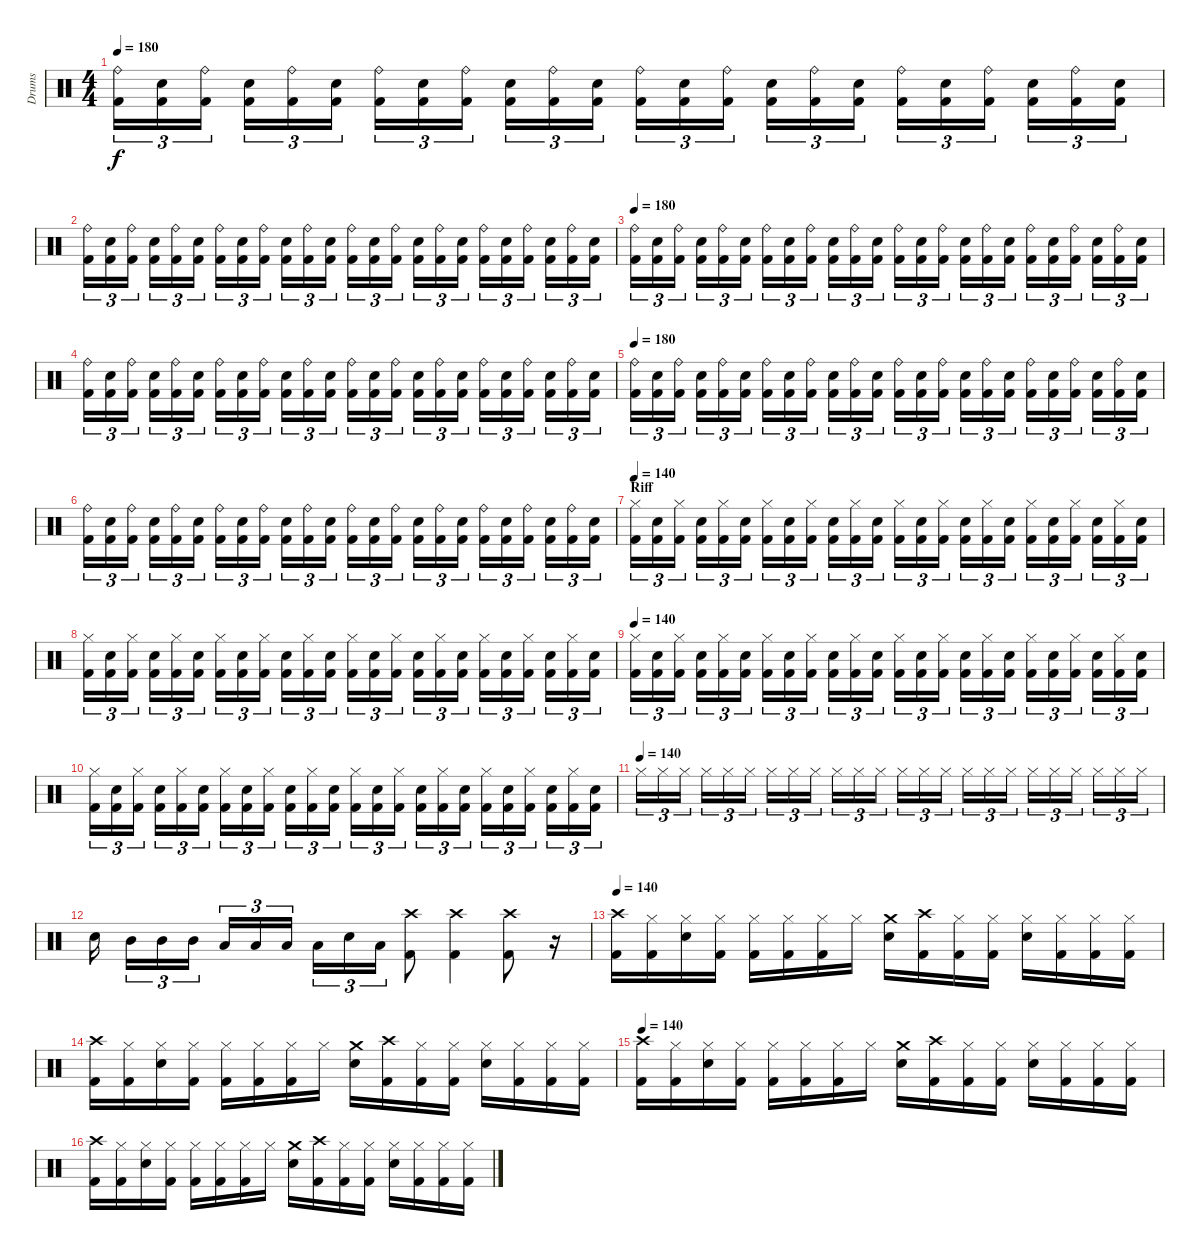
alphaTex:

\track ("Drums" "Drums") {instrument percussion}
\staff {score}
\articulation defaults
\ts (4 4)
\tempo 180
\clef neutral
\ks c
("Ride (bell)" "Kick (hit) 2").16{tu (3 2) dy f} ("Electric Snare (hit)" "Kick (hit) 2").16{tu (3 2)} ("Ride (bell)" "Kick (hit) 2").16{tu (3 2)} ("Electric Snare (hit)" "Kick (hit) 2").16{tu (3 2)} ("Ride (bell)" "Kick (hit) 2").16{tu (3 2)} ("Electric Snare (hit)" "Kick (hit) 2").16{tu (3 2)} ("Ride (bell)" "Kick (hit) 2").16{tu (3 2)} ("Electric Snare (hit)" "Kick (hit) 2").16{tu (3 2)} ("Ride (bell)" "Kick (hit) 2").16{tu (3 2)} ("Electric Snare (hit)" "Kick (hit) 2").16{tu (3 2)} ("Ride (bell)" "Kick (hit) 2").16{tu (3 2)} ("Electric Snare (hit)" "Kick (hit) 2").16{tu (3 2)} ("Ride (bell)" "Kick (hit) 2").16{tu (3 2)} ("Electric Snare (hit)" "Kick (hit) 2").16{tu (3 2)} ("Ride (bell)" "Kick (hit) 2").16{tu (3 2)} ("Electric Snare (hit)" "Kick (hit) 2").16{tu (3 2)} ("Ride (bell)" "Kick (hit) 2").16{tu (3 2)} ("Electric Snare (hit)" "Kick (hit) 2").16{tu (3 2)} ("Ride (bell)" "Kick (hit) 2").16{tu (3 2)} ("Electric Snare (hit)" "Kick (hit) 2").16{tu (3 2)} ("Ride (bell)" "Kick (hit) 2").16{tu (3 2)} ("Electric Snare (hit)" "Kick (hit) 2").16{tu (3 2)} ("Ride (bell)" "Kick (hit) 2").16{tu (3 2)} ("Electric Snare (hit)" "Kick (hit) 2").16{tu (3 2)} |
("Ride (bell)" "Kick (hit) 2").16{tu (3 2)} ("Electric Snare (hit)" "Kick (hit) 2").16{tu (3 2)} ("Ride (bell)" "Kick (hit) 2").16{tu (3 2)} ("Electric Snare (hit)" "Kick (hit) 2").16{tu (3 2)} ("Ride (bell)" "Kick (hit) 2").16{tu (3 2)} ("Electric Snare (hit)" "Kick (hit) 2").16{tu (3 2)} ("Ride (bell)" "Kick (hit) 2").16{tu (3 2)} ("Electric Snare (hit)" "Kick (hit) 2").16{tu (3 2)} ("Ride (bell)" "Kick (hit) 2").16{tu (3 2)} ("Electric Snare (hit)" "Kick (hit) 2").16{tu (3 2)} ("Ride (bell)" "Kick (hit) 2").16{tu (3 2)} ("Electric Snare (hit)" "Kick (hit) 2").16{tu (3 2)} ("Ride (bell)" "Kick (hit) 2").16{tu (3 2)} ("Electric Snare (hit)" "Kick (hit) 2").16{tu (3 2)} ("Ride (bell)" "Kick (hit) 2").16{tu (3 2)} ("Electric Snare (hit)" "Kick (hit) 2").16{tu (3 2)} ("Ride (bell)" "Kick (hit) 2").16{tu (3 2)} ("Electric Snare (hit)" "Kick (hit) 2").16{tu (3 2)} ("Ride (bell)" "Kick (hit) 2").16{tu (3 2)} ("Electric Snare (hit)" "Kick (hit) 2").16{tu (3 2)} ("Ride (bell)" "Kick (hit) 2").16{tu (3 2)} ("Electric Snare (hit)" "Kick (hit) 2").16{tu (3 2)} ("Ride (bell)" "Kick (hit) 2").16{tu (3 2)} ("Electric Snare (hit)" "Kick (hit) 2").16{tu (3 2)} |
\tempo 180
("Ride (bell)" "Kick (hit) 2").16{tu (3 2)} ("Electric Snare (hit)" "Kick (hit) 2").16{tu (3 2)} ("Ride (bell)" "Kick (hit) 2").16{tu (3 2)} ("Electric Snare (hit)" "Kick (hit) 2").16{tu (3 2)} ("Ride (bell)" "Kick (hit) 2").16{tu (3 2)} ("Electric Snare (hit)" "Kick (hit) 2").16{tu (3 2)} ("Ride (bell)" "Kick (hit) 2").16{tu (3 2)} ("Electric Snare (hit)" "Kick (hit) 2").16{tu (3 2)} ("Ride (bell)" "Kick (hit) 2").16{tu (3 2)} ("Electric Snare (hit)" "Kick (hit) 2").16{tu (3 2)} ("Ride (bell)" "Kick (hit) 2").16{tu (3 2)} ("Electric Snare (hit)" "Kick (hit) 2").16{tu (3 2)} ("Ride (bell)" "Kick (hit) 2").16{tu (3 2)} ("Electric Snare (hit)" "Kick (hit) 2").16{tu (3 2)} ("Ride (bell)" "Kick (hit) 2").16{tu (3 2)} ("Electric Snare (hit)" "Kick (hit) 2").16{tu (3 2)} ("Ride (bell)" "Kick (hit) 2").16{tu (3 2)} ("Electric Snare (hit)" "Kick (hit) 2").16{tu (3 2)} ("Ride (bell)" "Kick (hit) 2").16{tu (3 2)} ("Electric Snare (hit)" "Kick (hit) 2").16{tu (3 2)} ("Ride (bell)" "Kick (hit) 2").16{tu (3 2)} ("Electric Snare (hit)" "Kick (hit) 2").16{tu (3 2)} ("Ride (bell)" "Kick (hit) 2").16{tu (3 2)} ("Electric Snare (hit)" "Kick (hit) 2").16{tu (3 2)} |
("Ride (bell)" "Kick (hit) 2").16{tu (3 2)} ("Electric Snare (hit)" "Kick (hit) 2").16{tu (3 2)} ("Ride (bell)" "Kick (hit) 2").16{tu (3 2)} ("Electric Snare (hit)" "Kick (hit) 2").16{tu (3 2)} ("Ride (bell)" "Kick (hit) 2").16{tu (3 2)} ("Electric Snare (hit)" "Kick (hit) 2").16{tu (3 2)} ("Ride (bell)" "Kick (hit) 2").16{tu (3 2)} ("Electric Snare (hit)" "Kick (hit) 2").16{tu (3 2)} ("Ride (bell)" "Kick (hit) 2").16{tu (3 2)} ("Electric Snare (hit)" "Kick (hit) 2").16{tu (3 2)} ("Ride (bell)" "Kick (hit) 2").16{tu (3 2)} ("Electric Snare (hit)" "Kick (hit) 2").16{tu (3 2)} ("Ride (bell)" "Kick (hit) 2").16{tu (3 2)} ("Electric Snare (hit)" "Kick (hit) 2").16{tu (3 2)} ("Ride (bell)" "Kick (hit) 2").16{tu (3 2)} ("Electric Snare (hit)" "Kick (hit) 2").16{tu (3 2)} ("Ride (bell)" "Kick (hit) 2").16{tu (3 2)} ("Electric Snare (hit)" "Kick (hit) 2").16{tu (3 2)} ("Ride (bell)" "Kick (hit) 2").16{tu (3 2)} ("Electric Snare (hit)" "Kick (hit) 2").16{tu (3 2)} ("Ride (bell)" "Kick (hit) 2").16{tu (3 2)} ("Electric Snare (hit)" "Kick (hit) 2").16{tu (3 2)} ("Ride (bell)" "Kick (hit) 2").16{tu (3 2)} ("Electric Snare (hit)" "Kick (hit) 2").16{tu (3 2)} |
\tempo 180
("Ride (bell)" "Kick (hit) 2").16{tu (3 2)} ("Electric Snare (hit)" "Kick (hit) 2").16{tu (3 2)} ("Ride (bell)" "Kick (hit) 2").16{tu (3 2)} ("Electric Snare (hit)" "Kick (hit) 2").16{tu (3 2)} ("Ride (bell)" "Kick (hit) 2").16{tu (3 2)} ("Electric Snare (hit)" "Kick (hit) 2").16{tu (3 2)} ("Ride (bell)" "Kick (hit) 2").16{tu (3 2)} ("Electric Snare (hit)" "Kick (hit) 2").16{tu (3 2)} ("Ride (bell)" "Kick (hit) 2").16{tu (3 2)} ("Electric Snare (hit)" "Kick (hit) 2").16{tu (3 2)} ("Ride (bell)" "Kick (hit) 2").16{tu (3 2)} ("Electric Snare (hit)" "Kick (hit) 2").16{tu (3 2)} ("Ride (bell)" "Kick (hit) 2").16{tu (3 2)} ("Electric Snare (hit)" "Kick (hit) 2").16{tu (3 2)} ("Ride (bell)" "Kick (hit) 2").16{tu (3 2)} ("Electric Snare (hit)" "Kick (hit) 2").16{tu (3 2)} ("Ride (bell)" "Kick (hit) 2").16{tu (3 2)} ("Electric Snare (hit)" "Kick (hit) 2").16{tu (3 2)} ("Ride (bell)" "Kick (hit) 2").16{tu (3 2)} ("Electric Snare (hit)" "Kick (hit) 2").16{tu (3 2)} ("Ride (bell)" "Kick (hit) 2").16{tu (3 2)} ("Electric Snare (hit)" "Kick (hit) 2").16{tu (3 2)} ("Ride (bell)" "Kick (hit) 2").16{tu (3 2)} ("Electric Snare (hit)" "Kick (hit) 2").16{tu (3 2)} |
("Ride (bell)" "Kick (hit) 2").16{tu (3 2)} ("Electric Snare (hit)" "Kick (hit) 2").16{tu (3 2)} ("Ride (bell)" "Kick (hit) 2").16{tu (3 2)} ("Electric Snare (hit)" "Kick (hit) 2").16{tu (3 2)} ("Ride (bell)" "Kick (hit) 2").16{tu (3 2)} ("Electric Snare (hit)" "Kick (hit) 2").16{tu (3 2)} ("Ride (bell)" "Kick (hit) 2").16{tu (3 2)} ("Electric Snare (hit)" "Kick (hit) 2").16{tu (3 2)} ("Ride (bell)" "Kick (hit) 2").16{tu (3 2)} ("Electric Snare (hit)" "Kick (hit) 2").16{tu (3 2)} ("Ride (bell)" "Kick (hit) 2").16{tu (3 2)} ("Electric Snare (hit)" "Kick (hit) 2").16{tu (3 2)} ("Ride (bell)" "Kick (hit) 2").16{tu (3 2)} ("Electric Snare (hit)" "Kick (hit) 2").16{tu (3 2)} ("Ride (bell)" "Kick (hit) 2").16{tu (3 2)} ("Electric Snare (hit)" "Kick (hit) 2").16{tu (3 2)} ("Ride (bell)" "Kick (hit) 2").16{tu (3 2)} ("Electric Snare (hit)" "Kick (hit) 2").16{tu (3 2)} ("Ride (bell)" "Kick (hit) 2").16{tu (3 2)} ("Electric Snare (hit)" "Kick (hit) 2").16{tu (3 2)} ("Ride (bell)" "Kick (hit) 2").16{tu (3 2)} ("Electric Snare (hit)" "Kick (hit) 2").16{tu (3 2)} ("Ride (bell)" "Kick (hit) 2").16{tu (3 2)} ("Electric Snare (hit)" "Kick (hit) 2").16{tu (3 2)} |
\section ("" "Riff")
\tempo 140
("Hi-Hat (closed)" "Kick (hit) 2").16{tu (3 2)} ("Electric Snare (hit)" "Kick (hit) 2").16{tu (3 2)} ("Hi-Hat (closed)" "Kick (hit) 2").16{tu (3 2)} ("Electric Snare (hit)" "Kick (hit) 2").16{tu (3 2)} ("Hi-Hat (closed)" "Kick (hit) 2").16{tu (3 2)} ("Electric Snare (hit)" "Kick (hit) 2").16{tu (3 2)} ("Hi-Hat (closed)" "Kick (hit) 2").16{tu (3 2)} ("Electric Snare (hit)" "Kick (hit) 2").16{tu (3 2)} ("Hi-Hat (closed)" "Kick (hit) 2").16{tu (3 2)} ("Electric Snare (hit)" "Kick (hit) 2").16{tu (3 2)} ("Hi-Hat (closed)" "Kick (hit) 2").16{tu (3 2)} ("Electric Snare (hit)" "Kick (hit) 2").16{tu (3 2)} ("Hi-Hat (closed)" "Kick (hit) 2").16{tu (3 2)} ("Electric Snare (hit)" "Kick (hit) 2").16{tu (3 2)} ("Hi-Hat (closed)" "Kick (hit) 2").16{tu (3 2)} ("Electric Snare (hit)" "Kick (hit) 2").16{tu (3 2)} ("Hi-Hat (closed)" "Kick (hit) 2").16{tu (3 2)} ("Electric Snare (hit)" "Kick (hit) 2").16{tu (3 2)} ("Hi-Hat (closed)" "Kick (hit) 2").16{tu (3 2)} ("Electric Snare (hit)" "Kick (hit) 2").16{tu (3 2)} ("Hi-Hat (closed)" "Kick (hit) 2").16{tu (3 2)} ("Electric Snare (hit)" "Kick (hit) 2").16{tu (3 2)} ("Hi-Hat (closed)" "Kick (hit) 2").16{tu (3 2)} ("Electric Snare (hit)" "Kick (hit) 2").16{tu (3 2)} |
("Hi-Hat (closed)" "Kick (hit) 2").16{tu (3 2)} ("Electric Snare (hit)" "Kick (hit) 2").16{tu (3 2)} ("Hi-Hat (closed)" "Kick (hit) 2").16{tu (3 2)} ("Electric Snare (hit)" "Kick (hit) 2").16{tu (3 2)} ("Hi-Hat (closed)" "Kick (hit) 2").16{tu (3 2)} ("Electric Snare (hit)" "Kick (hit) 2").16{tu (3 2)} ("Hi-Hat (closed)" "Kick (hit) 2").16{tu (3 2)} ("Electric Snare (hit)" "Kick (hit) 2").16{tu (3 2)} ("Hi-Hat (closed)" "Kick (hit) 2").16{tu (3 2)} ("Electric Snare (hit)" "Kick (hit) 2").16{tu (3 2)} ("Hi-Hat (closed)" "Kick (hit) 2").16{tu (3 2)} ("Electric Snare (hit)" "Kick (hit) 2").16{tu (3 2)} ("Hi-Hat (closed)" "Kick (hit) 2").16{tu (3 2)} ("Electric Snare (hit)" "Kick (hit) 2").16{tu (3 2)} ("Hi-Hat (closed)" "Kick (hit) 2").16{tu (3 2)} ("Electric Snare (hit)" "Kick (hit) 2").16{tu (3 2)} ("Hi-Hat (closed)" "Kick (hit) 2").16{tu (3 2)} ("Electric Snare (hit)" "Kick (hit) 2").16{tu (3 2)} ("Hi-Hat (closed)" "Kick (hit) 2").16{tu (3 2)} ("Electric Snare (hit)" "Kick (hit) 2").16{tu (3 2)} ("Hi-Hat (closed)" "Kick (hit) 2").16{tu (3 2)} ("Electric Snare (hit)" "Kick (hit) 2").16{tu (3 2)} ("Hi-Hat (closed)" "Kick (hit) 2").16{tu (3 2)} ("Electric Snare (hit)" "Kick (hit) 2").16{tu (3 2)} |
\tempo 140
("Hi-Hat (closed)" "Kick (hit) 2").16{tu (3 2)} ("Electric Snare (hit)" "Kick (hit) 2").16{tu (3 2)} ("Hi-Hat (closed)" "Kick (hit) 2").16{tu (3 2)} ("Electric Snare (hit)" "Kick (hit) 2").16{tu (3 2)} ("Hi-Hat (closed)" "Kick (hit) 2").16{tu (3 2)} ("Electric Snare (hit)" "Kick (hit) 2").16{tu (3 2)} ("Hi-Hat (closed)" "Kick (hit) 2").16{tu (3 2)} ("Electric Snare (hit)" "Kick (hit) 2").16{tu (3 2)} ("Hi-Hat (closed)" "Kick (hit) 2").16{tu (3 2)} ("Electric Snare (hit)" "Kick (hit) 2").16{tu (3 2)} ("Hi-Hat (closed)" "Kick (hit) 2").16{tu (3 2)} ("Electric Snare (hit)" "Kick (hit) 2").16{tu (3 2)} ("Hi-Hat (closed)" "Kick (hit) 2").16{tu (3 2)} ("Electric Snare (hit)" "Kick (hit) 2").16{tu (3 2)} ("Hi-Hat (closed)" "Kick (hit) 2").16{tu (3 2)} ("Electric Snare (hit)" "Kick (hit) 2").16{tu (3 2)} ("Hi-Hat (closed)" "Kick (hit) 2").16{tu (3 2)} ("Electric Snare (hit)" "Kick (hit) 2").16{tu (3 2)} ("Hi-Hat (closed)" "Kick (hit) 2").16{tu (3 2)} ("Electric Snare (hit)" "Kick (hit) 2").16{tu (3 2)} ("Hi-Hat (closed)" "Kick (hit) 2").16{tu (3 2)} ("Electric Snare (hit)" "Kick (hit) 2").16{tu (3 2)} ("Hi-Hat (closed)" "Kick (hit) 2").16{tu (3 2)} ("Electric Snare (hit)" "Kick (hit) 2").16{tu (3 2)} |
("Hi-Hat (closed)" "Kick (hit) 2").16{tu (3 2)} ("Electric Snare (hit)" "Kick (hit) 2").16{tu (3 2)} ("Hi-Hat (closed)" "Kick (hit) 2").16{tu (3 2)} ("Electric Snare (hit)" "Kick (hit) 2").16{tu (3 2)} ("Hi-Hat (closed)" "Kick (hit) 2").16{tu (3 2)} ("Electric Snare (hit)" "Kick (hit) 2").16{tu (3 2)} ("Hi-Hat (closed)" "Kick (hit) 2").16{tu (3 2)} ("Electric Snare (hit)" "Kick (hit) 2").16{tu (3 2)} ("Hi-Hat (closed)" "Kick (hit) 2").16{tu (3 2)} ("Electric Snare (hit)" "Kick (hit) 2").16{tu (3 2)} ("Hi-Hat (closed)" "Kick (hit) 2").16{tu (3 2)} ("Electric Snare (hit)" "Kick (hit) 2").16{tu (3 2)} ("Hi-Hat (closed)" "Kick (hit) 2").16{tu (3 2)} ("Electric Snare (hit)" "Kick (hit) 2").16{tu (3 2)} ("Hi-Hat (closed)" "Kick (hit) 2").16{tu (3 2)} ("Electric Snare (hit)" "Kick (hit) 2").16{tu (3 2)} ("Hi-Hat (closed)" "Kick (hit) 2").16{tu (3 2)} ("Electric Snare (hit)" "Kick (hit) 2").16{tu (3 2)} ("Hi-Hat (closed)" "Kick (hit) 2").16{tu (3 2)} ("Electric Snare (hit)" "Kick (hit) 2").16{tu (3 2)} ("Hi-Hat (closed)" "Kick (hit) 2").16{tu (3 2)} ("Electric Snare (hit)" "Kick (hit) 2").16{tu (3 2)} ("Hi-Hat (closed)" "Kick (hit) 2").16{tu (3 2)} ("Electric Snare (hit)" "Kick (hit) 2").16{tu (3 2)} |
\tempo (140)
"Hi-Hat (closed)".16{tu (3 2)} "Hi-Hat (closed)".16{tu (3 2)} "Hi-Hat (closed)".16{tu (3 2)} "Hi-Hat (closed)".16{tu (3 2)} "Hi-Hat (closed)".16{tu (3 2)} "Hi-Hat (closed)".16{tu (3 2)} "Hi-Hat (closed)".16{tu (3 2)} "Hi-Hat (closed)".16{tu (3 2)} "Hi-Hat (closed)".16{tu (3 2)} "Hi-Hat (closed)".16{tu (3 2)} "Hi-Hat (closed)".16{tu (3 2)} "Hi-Hat (closed)".16{tu (3 2)} "Hi-Hat (closed)".16{tu (3 2)} "Hi-Hat (closed)".16{tu (3 2)} "Hi-Hat (closed)".16{tu (3 2)} "Hi-Hat (closed)".16{tu (3 2)} "Hi-Hat (closed)".16{tu (3 2)} "Hi-Hat (closed)".16{tu (3 2)} "Hi-Hat (closed)".16{tu (3 2)} "Hi-Hat (closed)".16{tu (3 2)} "Hi-Hat (closed)".16{tu (3 2)} "Hi-Hat (closed)".16{tu (3 2)} "Hi-Hat (closed)".16{tu (3 2)} "Hi-Hat (closed)".16{tu (3 2)} |
"Electric Snare (hit)".16 "Mid Tom (hit)".16{tu (3 2)} "Mid Tom (hit)".16{tu (3 2)} "Mid Tom (hit)".16{tu (3 2)} "Low Tom (hit)".16{tu (3 2)} "Low Tom (hit)".16{tu (3 2)} "Low Tom (hit)".16{tu (3 2)} "Low Tom (hit)".16{tu (3 2)} "Electric Snare (hit)".16{tu (3 2)} "Low Tom (hit)".16{tu (3 2)} ("Crash high (hit)" "Kick (hit) 2").8 ("Crash high (hit)" "Kick (hit) 2").4 ("Crash high (hit)" "Kick (hit) 2").8 r.16 |
\tempo 140
("Crash high (hit)" "Kick (hit) 2").16 ("Hi-Hat (closed)" "Kick (hit) 2").16 ("Hi-Hat (closed)" "Electric Snare (hit)").16 ("Hi-Hat (closed)" "Kick (hit) 2").16 ("Hi-Hat (closed)" "Kick (hit) 2").16 ("Hi-Hat (closed)" "Kick (hit) 2").16 ("Hi-Hat (closed)" "Kick (hit) 2").16 "Hi-Hat (closed)".16 ("Crash medium (hit)" "Electric Snare (hit)").16 ("Crash high (hit)" "Kick (hit) 2").16 ("Hi-Hat (closed)" "Kick (hit) 2").16 ("Hi-Hat (closed)" "Kick (hit) 2").16 ("Hi-Hat (closed)" "Electric Snare (hit)").16 ("Hi-Hat (closed)" "Kick (hit) 2").16 ("Hi-Hat (closed)" "Kick (hit) 2").16 ("Hi-Hat (closed)" "Kick (hit) 2").16 |
("Crash high (hit)" "Kick (hit) 2").16 ("Hi-Hat (closed)" "Kick (hit) 2").16 ("Hi-Hat (closed)" "Electric Snare (hit)").16 ("Hi-Hat (closed)" "Kick (hit) 2").16 ("Hi-Hat (closed)" "Kick (hit) 2").16 ("Hi-Hat (closed)" "Kick (hit) 2").16 ("Hi-Hat (closed)" "Kick (hit) 2").16 "Hi-Hat (closed)".16 ("Crash medium (hit)" "Electric Snare (hit)").16 ("Crash high (hit)" "Kick (hit) 2").16 ("Hi-Hat (closed)" "Kick (hit) 2").16 ("Hi-Hat (closed)" "Kick (hit) 2").16 ("Hi-Hat (closed)" "Electric Snare (hit)").16 ("Hi-Hat (closed)" "Kick (hit) 2").16 ("Hi-Hat (closed)" "Kick (hit) 2").16 ("Hi-Hat (closed)" "Kick (hit) 2").16 |
\tempo 140
("Crash high (hit)" "Kick (hit) 2").16 ("Hi-Hat (closed)" "Kick (hit) 2").16 ("Hi-Hat (closed)" "Electric Snare (hit)").16 ("Hi-Hat (closed)" "Kick (hit) 2").16 ("Hi-Hat (closed)" "Kick (hit) 2").16 ("Hi-Hat (closed)" "Kick (hit) 2").16 ("Hi-Hat (closed)" "Kick (hit) 2").16 "Hi-Hat (closed)".16 ("Crash medium (hit)" "Electric Snare (hit)").16 ("Crash high (hit)" "Kick (hit) 2").16 ("Hi-Hat (closed)" "Kick (hit) 2").16 ("Hi-Hat (closed)" "Kick (hit) 2").16 ("Hi-Hat (closed)" "Electric Snare (hit)").16 ("Hi-Hat (closed)" "Kick (hit) 2").16 ("Hi-Hat (closed)" "Kick (hit) 2").16 ("Hi-Hat (closed)" "Kick (hit) 2").16 |
("Crash high (hit)" "Kick (hit) 2").16 ("Hi-Hat (closed)" "Kick (hit) 2").16 ("Hi-Hat (closed)" "Electric Snare (hit)").16 ("Hi-Hat (closed)" "Kick (hit) 2").16 ("Hi-Hat (closed)" "Kick (hit) 2").16 ("Hi-Hat (closed)" "Kick (hit) 2").16 ("Hi-Hat (closed)" "Kick (hit) 2").16 "Hi-Hat (closed)".16 ("Crash medium (hit)" "Electric Snare (hit)").16 ("Crash high (hit)" "Kick (hit) 2").16 ("Hi-Hat (closed)" "Kick (hit) 2").16 ("Hi-Hat (closed)" "Kick (hit) 2").16 ("Hi-Hat (closed)" "Electric Snare (hit)").16 ("Hi-Hat (closed)" "Kick (hit) 2").16 ("Hi-Hat (closed)" "Kick (hit) 2").16 ("Hi-Hat (closed)" "Kick (hit) 2").16
